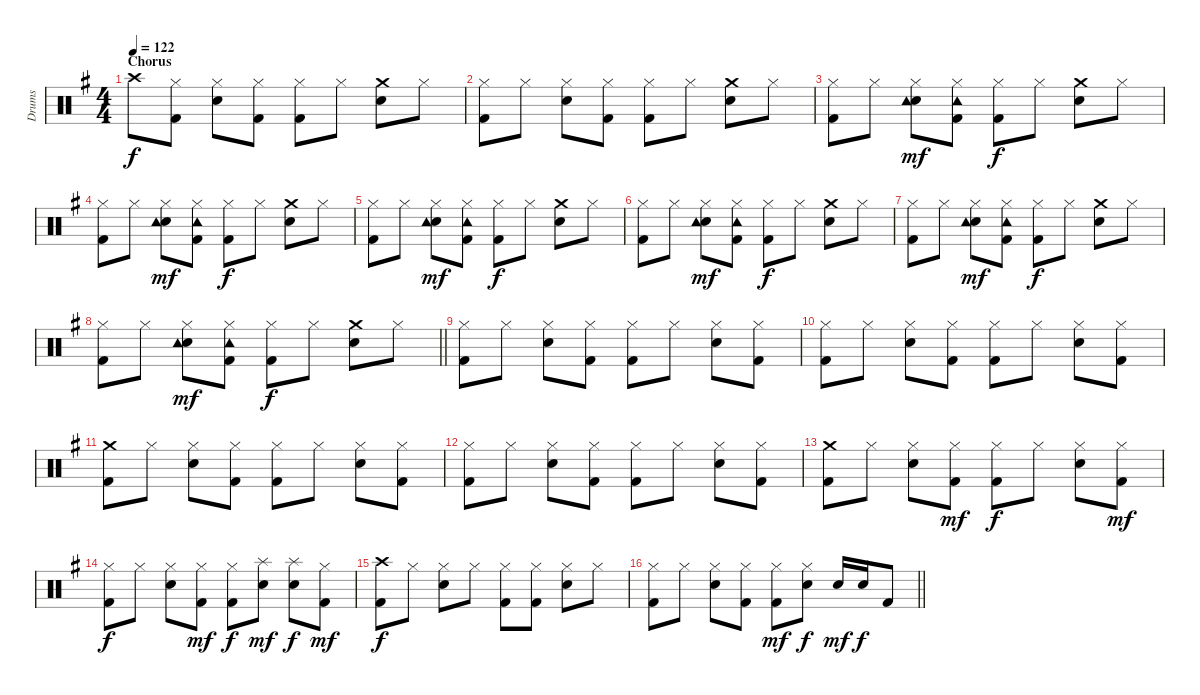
\track ("Drums" "Drums") {instrument percussion}
\staff {score}
\articulation defaults
\ts (4 4)
\section ("" "Chorus")
\tempo 122
\clef neutral
\ks g "Crash high (hit)"{t}.8{dy f}
("Hi-Hat (closed)" "Kick (hit) 2").8 ("Hi-Hat (closed)" "Electric Snare (hit)").8 ("Hi-Hat (closed)" "Kick (hit) 2").8 ("Hi-Hat (closed)" "Kick (hit) 2").8 "Hi-Hat (closed)".8 ("Crash medium (hit)" "Electric Snare (hit)").8 "Hi-Hat (closed)".8 |
("Hi-Hat (closed)" "Kick (hit) 2").8 "Hi-Hat (closed)".8 ("Hi-Hat (closed)" "Electric Snare (hit)").8 ("Hi-Hat (closed)" "Kick (hit) 2").8 ("Hi-Hat (closed)" "Kick (hit) 2").8 "Hi-Hat (closed)".8 ("Crash medium (hit)" "Electric Snare (hit)").8 "Hi-Hat (closed)".8 |
("Hi-Hat (closed)" "Kick (hit) 2").8 "Hi-Hat (closed)".8 ("Hi-Hat (closed)" "Electric Snare (hit)" "Tambourine (hit)").8{dy mf} ("Hi-Hat (closed)" "Tambourine (hit)" "Kick (hit) 2").8 ("Hi-Hat (closed)" "Kick (hit) 2").8{dy f} "Hi-Hat (closed)".8 ("Crash medium (hit)" "Electric Snare (hit)").8 "Hi-Hat (closed)".8 |
("Hi-Hat (closed)" "Kick (hit) 2").8 "Hi-Hat (closed)".8 ("Hi-Hat (closed)" "Electric Snare (hit)" "Tambourine (hit)").8{dy mf} ("Hi-Hat (closed)" "Tambourine (hit)" "Kick (hit) 2").8 ("Hi-Hat (closed)" "Kick (hit) 2").8{dy f} "Hi-Hat (closed)".8 ("Crash medium (hit)" "Electric Snare (hit)").8 "Hi-Hat (closed)".8 |
("Hi-Hat (closed)" "Kick (hit) 2").8 "Hi-Hat (closed)".8 ("Hi-Hat (closed)" "Electric Snare (hit)" "Tambourine (hit)").8{dy mf} ("Hi-Hat (closed)" "Tambourine (hit)" "Kick (hit) 2").8 ("Hi-Hat (closed)" "Kick (hit) 2").8{dy f} "Hi-Hat (closed)".8 ("Crash medium (hit)" "Electric Snare (hit)").8 "Hi-Hat (closed)".8 |
("Hi-Hat (closed)" "Kick (hit) 2").8 "Hi-Hat (closed)".8 ("Hi-Hat (closed)" "Electric Snare (hit)" "Tambourine (hit)").8{dy mf} ("Hi-Hat (closed)" "Tambourine (hit)" "Kick (hit) 2").8 ("Hi-Hat (closed)" "Kick (hit) 2").8{dy f} "Hi-Hat (closed)".8 ("Crash medium (hit)" "Electric Snare (hit)").8 "Hi-Hat (closed)".8 |
("Hi-Hat (closed)" "Kick (hit) 2").8 "Hi-Hat (closed)".8 ("Hi-Hat (closed)" "Electric Snare (hit)" "Tambourine (hit)").8{dy mf} ("Hi-Hat (closed)" "Tambourine (hit)" "Kick (hit) 2").8 ("Hi-Hat (closed)" "Kick (hit) 2").8{dy f} "Hi-Hat (closed)".8 ("Crash medium (hit)" "Electric Snare (hit)").8 "Hi-Hat (closed)".8 |
\barLineRight lightlight
("Hi-Hat (closed)" "Kick (hit) 2").8 "Hi-Hat (closed)".8 ("Hi-Hat (closed)" "Electric Snare (hit)" "Tambourine (hit)").8{dy mf} ("Hi-Hat (closed)" "Tambourine (hit)" "Kick (hit) 2").8 ("Hi-Hat (closed)" "Kick (hit) 2").8{dy f} "Hi-Hat (closed)".8 ("Crash medium (hit)" "Electric Snare (hit)").8 "Hi-Hat (closed)".8 |
("Hi-Hat (closed)" "Kick (hit) 2").8 "Hi-Hat (closed)".8 ("Hi-Hat (closed)" "Electric Snare (hit)").8 ("Hi-Hat (closed)" "Kick (hit) 2").8 ("Hi-Hat (closed)" "Kick (hit) 2").8 "Hi-Hat (closed)".8 ("Hi-Hat (closed)" "Electric Snare (hit)").8 ("Hi-Hat (closed)" "Kick (hit) 2").8 |
("Hi-Hat (closed)" "Kick (hit) 2").8 "Hi-Hat (closed)".8 ("Hi-Hat (closed)" "Electric Snare (hit)").8 ("Hi-Hat (closed)" "Kick (hit) 2").8 ("Hi-Hat (closed)" "Kick (hit) 2").8 "Hi-Hat (closed)".8 ("Hi-Hat (closed)" "Electric Snare (hit)").8 ("Hi-Hat (closed)" "Kick (hit) 2").8 |
("Crash medium (hit)" "Kick (hit) 2").8 "Hi-Hat (closed)".8 ("Hi-Hat (closed)" "Electric Snare (hit)").8 ("Hi-Hat (closed)" "Kick (hit) 2").8 ("Hi-Hat (closed)" "Kick (hit) 2").8 "Hi-Hat (closed)".8 ("Hi-Hat (closed)" "Electric Snare (hit)").8 ("Hi-Hat (closed)" "Kick (hit) 2").8 |
("Hi-Hat (closed)" "Kick (hit) 2").8 "Hi-Hat (closed)".8 ("Hi-Hat (closed)" "Electric Snare (hit)").8 ("Hi-Hat (closed)" "Kick (hit) 2").8 ("Hi-Hat (closed)" "Kick (hit) 2").8 "Hi-Hat (closed)".8 ("Hi-Hat (closed)" "Electric Snare (hit)").8 ("Hi-Hat (closed)" "Kick (hit) 2").8 |
("Crash medium (hit)" "Kick (hit) 2").8 "Hi-Hat (closed)".8 ("Hi-Hat (closed)" "Electric Snare (hit)").8 ("Hi-Hat (closed)" "Kick (hit) 2").8{dy mf} ("Hi-Hat (closed)" "Kick (hit) 2").8{dy f} "Hi-Hat (closed)".8 ("Hi-Hat (closed)" "Electric Snare (hit)").8 ("Hi-Hat (closed)" "Kick (hit) 2").8{dy mf} |
("Hi-Hat (closed)" "Kick (hit) 2").8{dy f} "Hi-Hat (closed)".8 ("Hi-Hat (closed)" "Electric Snare (hit)").8 ("Hi-Hat (closed)" "Kick (hit) 2").8{dy mf} ("Hi-Hat (closed)" "Kick (hit) 2").8{dy f} ("Splash (hit)" "Electric Snare (hit)").8{dy mf} ("Splash (hit)" "Electric Snare (hit)").8{dy f} ("Hi-Hat (closed)" "Kick (hit) 2").8{dy mf} |
("Crash high (hit)" "Kick (hit) 2").8{dy f} "Hi-Hat (closed)".8 ("Hi-Hat (closed)" "Electric Snare (hit)").8 "Hi-Hat (closed)".8 ("Hi-Hat (closed)" "Kick (hit) 2").8 ("Hi-Hat (closed)" "Kick (hit) 2").8 ("Hi-Hat (closed)" "Electric Snare (hit)").8 "Hi-Hat (closed)".8 |
\barLineRight lightlight
("Hi-Hat (closed)" "Kick (hit) 2").8 "Hi-Hat (closed)".8 ("Hi-Hat (closed)" "Electric Snare (hit)").8 ("Hi-Hat (closed)" "Kick (hit) 2").8 ("Hi-Hat (closed)" "Kick (hit) 2").8{dy mf} ("Hi-Hat (closed)" "Electric Snare (hit)").8{dy f} "Electric Snare (hit)".16{dy mf} "Electric Snare (hit)".16{dy f} "Kick (hit) 2".8
